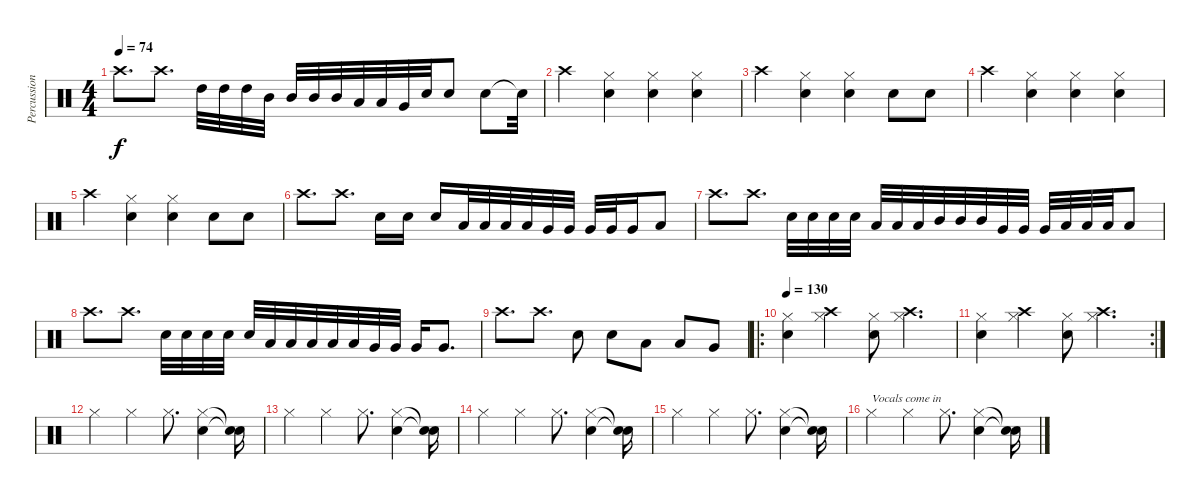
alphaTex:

\track ("Percussion" "Percussion") {instrument percussion}
\staff {score}
\articulation defaults
\ts (4 4)
\tempo 74
\clef neutral
\ks c "Crash high (hit)".8{d dy f} "Crash high (hit)".8{d} "High Tom (hit)".32 "High Tom (hit)".32 "High Tom (hit)".32 "Mid Tom (hit)".32 "Mid Tom (hit)".32 "Mid Tom (hit)".32 "Mid Tom (hit)".32 "Low Tom (hit)".32 "Low Tom (hit)".32 "Very Low Tom (hit)".32 "Snare (hit) 2".32 "Snare (hit) 2".8 "Snare (hit) 2".8 "Snare (hit)"{t}.32
|
"Crash high (hit)".4 ("Snare (hit) 2" "Hi-Hat (closed)").4 ("Snare (hit) 2" "Hi-Hat (closed)").4 ("Snare (hit) 2" "Hi-Hat (closed)").4 |
"Crash high (hit)".4 ("Snare (hit) 2" "Hi-Hat (closed)").4 ("Snare (hit) 2" "Hi-Hat (closed)").4 "Snare (hit) 2".8 "Snare (hit) 2".8 |
"Crash high (hit)".4 ("Snare (hit) 2" "Hi-Hat (closed)").4 ("Snare (hit) 2" "Hi-Hat (closed)").4 ("Snare (hit) 2" "Hi-Hat (closed)").4 |
"Crash high (hit)".4 ("Snare (hit) 2" "Hi-Hat (closed)").4 ("Snare (hit) 2" "Hi-Hat (closed)").4 "Snare (hit) 2".8 "Snare (hit) 2".8 |
"Crash high (hit)".8{d} "Crash high (hit)".8{d} "Snare (hit) 2".16 "Snare (hit) 2".16 "Snare (hit) 2".16 "Low Tom (hit)".32 "Low Tom (hit)".32 "Low Tom (hit)".32 "Low Tom (hit)".32 "Very Low Tom (hit)".32 "Very Low Tom (hit)".32 "Very Low Tom (hit)".32 "Very Low Tom (hit)".32 "Very Low Tom (hit)".16 "Low Floor Tom (hit)".8 |
"Crash high (hit)".8{d} "Crash high (hit)".8{d} "Snare (hit) 2".32 "Snare (hit) 2".32 "Snare (hit) 2".32 "Snare (hit) 2".32 "Low Tom (hit)".32 "Low Tom (hit)".32 "Low Tom (hit)".32 "Mid Tom (hit)".32 "Mid Tom (hit)".32 "Mid Tom (hit)".32 "Very Low Tom (hit)".32 "Very Low Tom (hit)".32 "Very Low Tom (hit)".32 "Low Tom (hit)".32 "Low Tom (hit)".32 "Low Floor Tom (hit)".32 "Low Floor Tom (hit)".8 |
"Crash high (hit)".8{d} "Crash high (hit)".8{d} "Snare (hit) 2".32 "Snare (hit) 2".32 "Snare (hit) 2".32 "Snare (hit) 2".32 "Snare (hit) 2".32 "Low Tom (hit)".32 "Low Tom (hit)".32 "Low Tom (hit)".32 "Low Tom (hit)".32 "Low Tom (hit)".32 "Very Low Tom (hit)".32 "Very Low Tom (hit)".32 "Very Low Tom (hit)".16 "Very Low Tom (hit)".8{d} |
"Crash high (hit)".8{d} "Crash high (hit)".8{d} "Snare (hit) 2".8 "Snare (hit) 2".8 "Low Tom (hit)".8 "Low Tom (hit)".8 "Very Low Tom (hit)".8 |
\ro
\tempo 130
("Snare (hit) 2" "Hi-Hat (closed)").4 ("Crash high (hit)" "Hi-Hat (closed)").4 ("Snare (hit) 2" "Hi-Hat (closed)").8 ("Crash high (hit)" "Hi-Hat (closed)").4{d} |
\rc 2
("Snare (hit) 2" "Hi-Hat (closed)").4 ("Crash high (hit)" "Hi-Hat (closed)").4 ("Snare (hit) 2" "Hi-Hat (closed)").8 ("Crash high (hit)" "Hi-Hat (closed)").4{d} |
"Hi-Hat (closed)".4{volume 10} "Hi-Hat (closed)".4 "Hi-Hat (closed)".8{d} ("Hi-Hat (closed)" "Snare (hit) 2").4 ("Snare (hit)"{t} "Snare (hit)"{t}).16 |
"Hi-Hat (closed)".4 "Hi-Hat (closed)".4 "Hi-Hat (closed)".8{d} ("Hi-Hat (closed)" "Snare (hit) 2").4 ("Snare (hit)"{t} "Snare (hit)"{t}).16 |
"Hi-Hat (closed)".4 "Hi-Hat (closed)".4 "Hi-Hat (closed)".8{d} ("Hi-Hat (closed)" "Snare (hit) 2").4 ("Snare (hit)"{t} "Snare (hit)"{t}).16 |
"Hi-Hat (closed)".4 "Hi-Hat (closed)".4 "Hi-Hat (closed)".8{d} ("Hi-Hat (closed)" "Snare (hit) 2").4 ("Snare (hit)"{t} "Snare (hit)"{t}).16 |
"Hi-Hat (closed)".4{txt "Vocals come in"} "Hi-Hat (closed)".4 "Hi-Hat (closed)".8{d} ("Hi-Hat (closed)" "Snare (hit) 2").4 ("Snare (hit)"{t} "Snare (hit)"{t}).16
